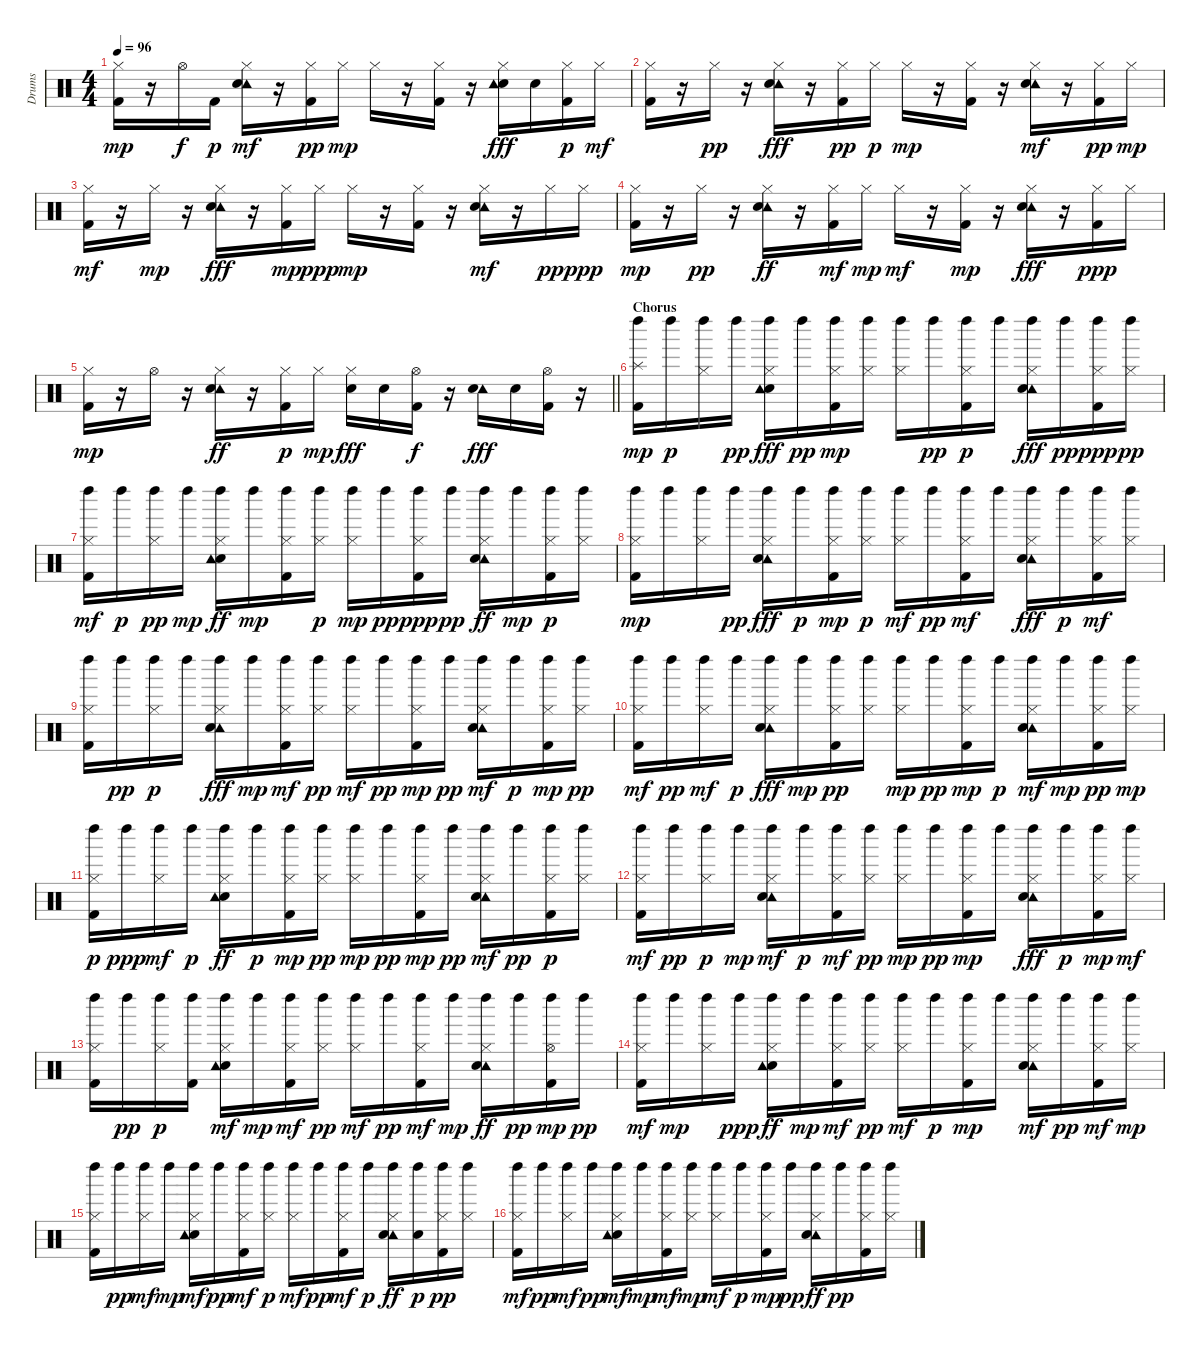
\track ("Drums" "Drums") {instrument percussion}
\staff {score}
\articulation defaults
\ts (4 4)
\tempo 96
\clef neutral
\ks c
("Kick (hit) 2" "Hi-Hat (closed)").16{dy mp} r.16 "Hi-Hat (open)".16{dy f} "Kick (hit) 2".16{dy p} ("Tambourine (hit)" "Electric Snare (hit)" "Hi-Hat (closed)").16{dy mf} r.16 ("Hi-Hat (closed)" "Kick (hit) 2").16{dy pp} "Hi-Hat (closed)".16{dy mp} "Hi-Hat (closed)".16 r.16 ("Hi-Hat (closed)" "Kick (hit) 2").16 r.16 ("Electric Snare (hit)" "Tambourine (hit)" "Hi-Hat (closed)").16{dy fff} "Electric Snare (hit)".16 ("Kick (hit) 2" "Hi-Hat (closed)").16{dy p} "Hi-Hat (closed)".16{dy mf} |
("Kick (hit) 2" "Hi-Hat (closed)").16 r.16 "Hi-Hat (closed)".16{dy pp} r.16 ("Hi-Hat (closed)" "Tambourine (hit)" "Electric Snare (hit)").16{dy fff} r.16 ("Kick (hit) 2" "Hi-Hat (closed)").16{dy pp} "Hi-Hat (closed)".16{dy p} "Hi-Hat (closed)".16{dy mp} r.16 ("Kick (hit) 2" "Hi-Hat (closed)").16 r.16 ("Tambourine (hit)" "Electric Snare (hit)" "Hi-Hat (closed)").16{dy mf} r.16 ("Hi-Hat (closed)" "Kick (hit) 2").16{dy pp} "Hi-Hat (closed)".16{dy mp} |
("Hi-Hat (closed)" "Kick (hit) 2").16{dy mf} r.16 "Hi-Hat (closed)".16{dy mp} r.16 ("Tambourine (hit)" "Electric Snare (hit)" "Hi-Hat (closed)").16{dy fff} r.16 ("Hi-Hat (closed)" "Kick (hit) 2").16{dy mp} "Hi-Hat (closed)".16{dy ppp} "Hi-Hat (closed)".16{dy mp} r.16 ("Kick (hit) 2" "Hi-Hat (closed)").16 r.16 ("Tambourine (hit)" "Electric Snare (hit)" "Hi-Hat (closed)").16{dy mf} r.16 "Hi-Hat (closed)".16{dy pp} "Hi-Hat (closed)".16{dy ppp} |
("Hi-Hat (closed)" "Kick (hit) 2").16{dy mp} r.16 "Hi-Hat (closed)".16{dy pp} r.16 ("Tambourine (hit)" "Electric Snare (hit)" "Hi-Hat (closed)").16{dy ff} r.16 ("Hi-Hat (closed)" "Kick (hit) 2").16{dy mf} "Hi-Hat (closed)".16{dy mp} "Hi-Hat (closed)".16{dy mf} r.16 ("Kick (hit) 2" "Hi-Hat (closed)").16{dy mp} r.16 ("Tambourine (hit)" "Electric Snare (hit)" "Hi-Hat (closed)").16{dy fff} r.16 ("Hi-Hat (closed)" "Kick (hit) 2").16{dy ppp} "Hi-Hat (closed)".16 |
\barLineRight lightlight
("Kick (hit) 2" "Hi-Hat (closed)").16{dy mp} r.16 "Hi-Hat (open)".16 r.16 ("Tambourine (hit)" "Electric Snare (hit)" "Hi-Hat (closed)").16{dy ff} r.16 ("Hi-Hat (closed)" "Kick (hit) 2").16{dy p} "Hi-Hat (closed)".16{dy mp} ("Hi-Hat (closed)" "Electric Snare (hit)").16{dy fff} "Electric Snare (hit)".16 ("Hi-Hat (open)" "Kick (hit) 2").16{dy f} r.16 ("Tambourine (hit)" "Electric Snare (hit)").16{dy fff} "Electric Snare (hit)".16 ("Kick (hit) 2" "Hi-Hat (open)").16 r.16 |
\section ("" "Chorus")
("Kick (hit) 2" "Splash (hit)" "Left Maraca (hit)").16{dy mp} "Left Maraca (hit)".16{dy p} ("Hi-Hat (closed)" "Left Maraca (hit)").16 "Left Maraca (hit)".16{dy pp} ("Hi-Hat (closed)" "Electric Snare (hit)" "Tambourine (hit)" "Left Maraca (hit)").16{dy fff} "Left Maraca (hit)".16{dy pp} ("Hi-Hat (closed)" "Kick (hit) 2" "Left Maraca (hit)").16{dy mp} ("Hi-Hat (closed)" "Left Maraca (hit)").16 ("Hi-Hat (closed)" "Left Maraca (hit)").16 "Left Maraca (hit)".16{dy pp} ("Left Maraca (hit)" "Kick (hit) 2" "Hi-Hat (closed)").16{dy p} "Left Maraca (hit)".16 ("Tambourine (hit)" "Electric Snare (hit)" "Hi-Hat (closed)" "Left Maraca (hit)").16{dy fff} "Left Maraca (hit)".16{dy pp} ("Kick (hit) 2" "Hi-Hat (closed)" "Left Maraca (hit)").16{dy ppp} ("Hi-Hat (closed)" "Left Maraca (hit)").16{dy pp} |
("Hi-Hat (closed)" "Kick (hit) 2" "Left Maraca (hit)").16{dy mf} "Left Maraca (hit)".16{dy p} ("Hi-Hat (closed)" "Left Maraca (hit)").16{dy pp} "Left Maraca (hit)".16{dy mp} ("Hi-Hat (closed)" "Electric Snare (hit)" "Tambourine (hit)" "Left Maraca (hit)").16{dy ff} "Left Maraca (hit)".16{dy mp} ("Left Maraca (hit)" "Hi-Hat (closed)" "Kick (hit) 2").16 ("Left Maraca (hit)" "Hi-Hat (closed)").16{dy p} ("Left Maraca (hit)" "Hi-Hat (closed)").16{dy mp} "Left Maraca (hit)".16{dy pp} ("Left Maraca (hit)" "Kick (hit) 2" "Hi-Hat (closed)").16{dy ppp} "Left Maraca (hit)".16{dy pp} ("Tambourine (hit)" "Electric Snare (hit)" "Hi-Hat (closed)" "Left Maraca (hit)").16{dy ff} "Left Maraca (hit)".16{dy mp} ("Left Maraca (hit)" "Kick (hit) 2" "Hi-Hat (closed)").16{dy p} ("Hi-Hat (closed)" "Left Maraca (hit)").16 |
("Left Maraca (hit)" "Kick (hit) 2" "Hi-Hat (closed)").16{dy mp} "Left Maraca (hit)".16 ("Left Maraca (hit)" "Hi-Hat (closed)").16 "Left Maraca (hit)".16{dy pp} ("Left Maraca (hit)" "Hi-Hat (closed)" "Tambourine (hit)" "Electric Snare (hit)").16{dy fff} "Left Maraca (hit)".16{dy p} ("Left Maraca (hit)" "Hi-Hat (closed)" "Kick (hit) 2").16{dy mp} ("Hi-Hat (closed)" "Left Maraca (hit)").16{dy p} ("Hi-Hat (closed)" "Left Maraca (hit)").16{dy mf} "Left Maraca (hit)".16{dy pp} ("Left Maraca (hit)" "Hi-Hat (closed)" "Kick (hit) 2").16{dy mf} "Left Maraca (hit)".16 ("Tambourine (hit)" "Electric Snare (hit)" "Hi-Hat (closed)" "Left Maraca (hit)").16{dy fff} "Left Maraca (hit)".16{dy p} ("Left Maraca (hit)" "Kick (hit) 2" "Hi-Hat (closed)").16{dy mf} ("Hi-Hat (closed)" "Left Maraca (hit)").16 |
("Left Maraca (hit)" "Kick (hit) 2" "Hi-Hat (closed)").16 "Left Maraca (hit)".16{dy pp} ("Left Maraca (hit)" "Hi-Hat (closed)").16{dy p} "Left Maraca (hit)".16 ("Tambourine (hit)" "Electric Snare (hit)" "Hi-Hat (closed)" "Left Maraca (hit)").16{dy fff} "Left Maraca (hit)".16{dy mp} ("Left Maraca (hit)" "Kick (hit) 2" "Hi-Hat (closed)").16{dy mf} ("Left Maraca (hit)" "Hi-Hat (closed)").16{dy pp} ("Left Maraca (hit)" "Hi-Hat (closed)").16{dy mf} "Left Maraca (hit)".16{dy pp} ("Left Maraca (hit)" "Kick (hit) 2" "Hi-Hat (closed)").16{dy mp} "Left Maraca (hit)".16{dy pp} ("Left Maraca (hit)" "Tambourine (hit)" "Electric Snare (hit)" "Hi-Hat (closed)").16{dy mf} "Left Maraca (hit)".16{dy p} ("Left Maraca (hit)" "Kick (hit) 2" "Hi-Hat (closed)").16{dy mp} ("Hi-Hat (closed)" "Left Maraca (hit)").16{dy pp} |
("Kick (hit) 2" "Hi-Hat (closed)" "Left Maraca (hit)").16{dy mf} "Left Maraca (hit)".16{dy pp} ("Left Maraca (hit)" "Hi-Hat (closed)").16{dy mf} "Left Maraca (hit)".16{dy p} ("Tambourine (hit)" "Electric Snare (hit)" "Hi-Hat (closed)" "Left Maraca (hit)").16{dy fff} "Left Maraca (hit)".16{dy mp} ("Hi-Hat (closed)" "Kick (hit) 2" "Left Maraca (hit)").16{dy pp} ("Left Maraca (hit)" "Hi-Hat (closed)").16 ("Left Maraca (hit)" "Hi-Hat (closed)").16{dy mp} "Left Maraca (hit)".16{dy pp} ("Left Maraca (hit)" "Kick (hit) 2" "Hi-Hat (closed)").16{dy mp} "Left Maraca (hit)".16{dy p} ("Left Maraca (hit)" "Tambourine (hit)" "Electric Snare (hit)" "Hi-Hat (closed)").16{dy mf} "Left Maraca (hit)".16{dy mp} ("Left Maraca (hit)" "Hi-Hat (closed)" "Kick (hit) 2").16{dy pp} ("Left Maraca (hit)" "Hi-Hat (closed)").16{dy mp} |
("Left Maraca (hit)" "Kick (hit) 2" "Hi-Hat (closed)").16{dy p} "Left Maraca (hit)".16{dy ppp} ("Left Maraca (hit)" "Hi-Hat (closed)").16{dy mf} "Left Maraca (hit)".16{dy p} ("Electric Snare (hit)" "Tambourine (hit)" "Hi-Hat (closed)" "Left Maraca (hit)").16{dy ff} "Left Maraca (hit)".16{dy p} ("Left Maraca (hit)" "Kick (hit) 2" "Hi-Hat (closed)").16{dy mp} ("Hi-Hat (closed)" "Left Maraca (hit)").16{dy pp} ("Hi-Hat (closed)" "Left Maraca (hit)").16{dy mp} "Left Maraca (hit)".16{dy pp} ("Kick (hit) 2" "Hi-Hat (closed)" "Left Maraca (hit)").16{dy mp} "Left Maraca (hit)".16{dy pp} ("Tambourine (hit)" "Electric Snare (hit)" "Hi-Hat (closed)" "Left Maraca (hit)").16{dy mf} "Left Maraca (hit)".16{dy pp} ("Left Maraca (hit)" "Hi-Hat (closed)" "Kick (hit) 2").16{dy p} ("Left Maraca (hit)" "Hi-Hat (closed)").16 |
("Left Maraca (hit)" "Hi-Hat (closed)" "Kick (hit) 2").16{dy mf} "Left Maraca (hit)".16{dy pp} ("Left Maraca (hit)" "Hi-Hat (closed)").16{dy p} "Left Maraca (hit)".16{dy mp} ("Left Maraca (hit)" "Tambourine (hit)" "Electric Snare (hit)" "Hi-Hat (closed)").16{dy mf} "Left Maraca (hit)".16{dy p} ("Left Maraca (hit)" "Hi-Hat (closed)" "Kick (hit) 2").16{dy mf} ("Left Maraca (hit)" "Hi-Hat (closed)").16{dy pp} ("Left Maraca (hit)" "Hi-Hat (closed)").16{dy mp} "Left Maraca (hit)".16{dy pp} ("Left Maraca (hit)" "Kick (hit) 2" "Hi-Hat (closed)").16{dy mp} "Left Maraca (hit)".16 ("Tambourine (hit)" "Electric Snare (hit)" "Hi-Hat (closed)" "Left Maraca (hit)").16{dy fff} "Left Maraca (hit)".16{dy p} ("Hi-Hat (closed)" "Kick (hit) 2" "Left Maraca (hit)").16{dy mp} ("Hi-Hat (closed)" "Left Maraca (hit)").16{dy mf} |
("Hi-Hat (closed)" "Kick (hit) 2" "Left Maraca (hit)").16 "Left Maraca (hit)".16{dy pp} ("Hi-Hat (closed)" "Left Maraca (hit)").16{dy p} ("Kick (hit) 2" "Left Maraca (hit)").16 ("Electric Snare (hit)" "Tambourine (hit)" "Hi-Hat (closed)" "Left Maraca (hit)").16{dy mf} "Left Maraca (hit)".16{dy mp} ("Left Maraca (hit)" "Hi-Hat (closed)" "Kick (hit) 2").16{dy mf} ("Hi-Hat (closed)" "Left Maraca (hit)").16{dy pp} ("Hi-Hat (closed)" "Left Maraca (hit)").16{dy mf} "Left Maraca (hit)".16{dy pp} ("Kick (hit) 2" "Hi-Hat (closed)" "Left Maraca (hit)").16{dy mf} "Left Maraca (hit)".16{dy mp} ("Tambourine (hit)" "Electric Snare (hit)" "Hi-Hat (closed)" "Left Maraca (hit)").16{dy ff} "Left Maraca (hit)".16{dy pp} ("Left Maraca (hit)" "Hi-Hat (open)" "Kick (hit) 2").16{dy mp} "Left Maraca (hit)".16{dy pp} |
("Kick (hit) 2" "Hi-Hat (closed)" "Left Maraca (hit)").16{dy mf} "Left Maraca (hit)".16{dy mp} ("Left Maraca (hit)" "Hi-Hat (closed)").16 "Left Maraca (hit)".16{dy ppp} ("Hi-Hat (closed)" "Electric Snare (hit)" "Tambourine (hit)" "Left Maraca (hit)").16{dy ff} "Left Maraca (hit)".16{dy mp} ("Left Maraca (hit)" "Hi-Hat (closed)" "Kick (hit) 2").16{dy mf} ("Left Maraca (hit)" "Hi-Hat (closed)").16{dy pp} ("Left Maraca (hit)" "Hi-Hat (closed)").16{dy mf} "Left Maraca (hit)".16{dy p} ("Left Maraca (hit)" "Kick (hit) 2" "Hi-Hat (closed)").16{dy mp} "Left Maraca (hit)".16 ("Left Maraca (hit)" "Tambourine (hit)" "Electric Snare (hit)" "Hi-Hat (closed)").16{dy mf} "Left Maraca (hit)".16{dy pp} ("Kick (hit) 2" "Hi-Hat (closed)" "Left Maraca (hit)").16{dy mf} ("Hi-Hat (closed)" "Left Maraca (hit)").16{dy mp} |
("Kick (hit) 2" "Hi-Hat (closed)" "Left Maraca (hit)").16 "Left Maraca (hit)".16{dy pp} ("Hi-Hat (closed)" "Left Maraca (hit)").16{dy mf} "Left Maraca (hit)".16{dy mp} ("Hi-Hat (closed)" "Electric Snare (hit)" "Tambourine (hit)" "Left Maraca (hit)").16{dy mf} "Left Maraca (hit)".16{dy pp} ("Hi-Hat (closed)" "Kick (hit) 2" "Left Maraca (hit)").16{dy mf} ("Left Maraca (hit)" "Hi-Hat (closed)").16{dy p} ("Left Maraca (hit)" "Hi-Hat (closed)").16{dy mf} "Left Maraca (hit)".16{dy pp} ("Left Maraca (hit)" "Kick (hit) 2" "Hi-Hat (closed)").16{dy mf} "Left Maraca (hit)".16{dy p} ("Tambourine (hit)" "Electric Snare (hit)" "Hi-Hat (closed)" "Left Maraca (hit)").16{dy ff} ("Electric Snare (hit)" "Left Maraca (hit)").16{dy p} ("Hi-Hat (closed)" "Kick (hit) 2" "Left Maraca (hit)").16{dy pp} ("Hi-Hat (closed)" "Left Maraca (hit)").16 |
("Hi-Hat (closed)" "Kick (hit) 2" "Left Maraca (hit)").16{dy mf} "Left Maraca (hit)".16{dy pp} ("Left Maraca (hit)" "Hi-Hat (closed)").16{dy mf} "Left Maraca (hit)".16{dy pp} ("Hi-Hat (closed)" "Electric Snare (hit)" "Tambourine (hit)" "Left Maraca (hit)").16{dy mf} "Left Maraca (hit)".16{dy mp} ("Left Maraca (hit)" "Hi-Hat (closed)" "Kick (hit) 2").16{dy mf} ("Hi-Hat (closed)" "Left Maraca (hit)").16{dy mp} ("Left Maraca (hit)" "Hi-Hat (closed)").16{dy mf} "Left Maraca (hit)".16{dy p} ("Hi-Hat (closed)" "Kick (hit) 2" "Left Maraca (hit)").16{dy mp} "Left Maraca (hit)".16{dy pp} ("Tambourine (hit)" "Electric Snare (hit)" "Hi-Hat (closed)" "Left Maraca (hit)").16{dy ff} "Left Maraca (hit)".16{dy pp} ("Hi-Hat (closed)" "Kick (hit) 2" "Left Maraca (hit)").16 ("Hi-Hat (closed)" "Left Maraca (hit)").16
